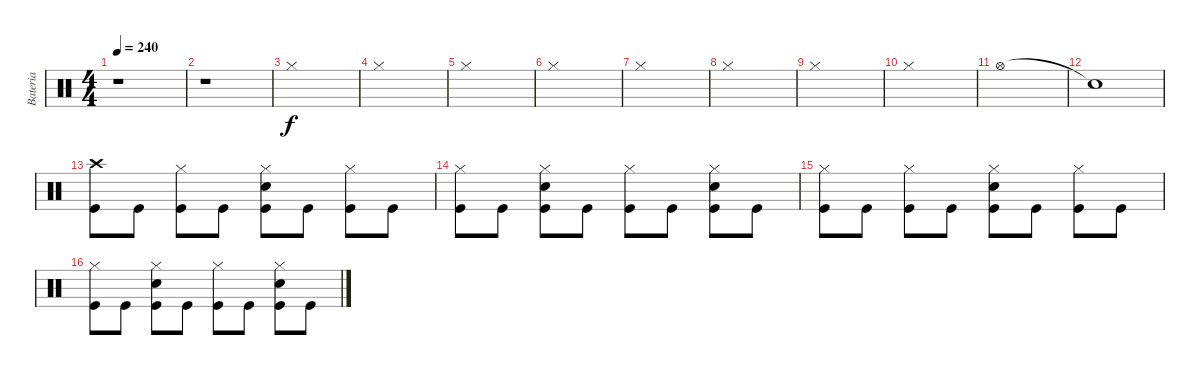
\track ("Bateria" "Bateria") {instrument percussion}
\staff {score}
\articulation defaults
\ts (4 4)
\tempo 240
\clef neutral
\ks c
r.1{dy f} |
r.1 |
"Hi-Hat (closed)".1 |
"Hi-Hat (closed)".1 |
"Hi-Hat (closed)".1 |
"Hi-Hat (closed)".1 |
"Hi-Hat (closed)".1 |
"Hi-Hat (closed)".1 |
"Hi-Hat (closed)".1 |
"Hi-Hat (closed)".1 |
"Hi-Hat (open)".1 |
"Snare (hit)"{t}.1 |
("Kick (hit)" "Crash high (hit)").8 "Kick (hit)".8 ("Kick (hit)" "Hi-Hat (closed)").8 "Kick (hit)".8 ("Kick (hit)" "Electric Snare (hit)" "Hi-Hat (closed)").8 "Kick (hit)".8 ("Kick (hit)" "Hi-Hat (closed)").8 "Kick (hit)".8 |
("Kick (hit)" "Hi-Hat (closed)").8 "Kick (hit)".8 ("Kick (hit)" "Electric Snare (hit)" "Hi-Hat (closed)").8 "Kick (hit)".8 ("Kick (hit)" "Hi-Hat (closed)").8 "Kick (hit)".8 ("Kick (hit)" "Electric Snare (hit)" "Hi-Hat (closed)").8 "Kick (hit)".8 |
("Kick (hit)" "Hi-Hat (closed)").8 "Kick (hit)".8 ("Kick (hit)" "Hi-Hat (closed)").8 "Kick (hit)".8 ("Kick (hit)" "Electric Snare (hit)" "Hi-Hat (closed)").8 "Kick (hit)".8 ("Kick (hit)" "Hi-Hat (closed)").8 "Kick (hit)".8 |
("Kick (hit)" "Hi-Hat (closed)").8 "Kick (hit)".8 ("Kick (hit)" "Electric Snare (hit)" "Hi-Hat (closed)").8 "Kick (hit)".8 ("Kick (hit)" "Hi-Hat (closed)").8 "Kick (hit)".8 ("Kick (hit)" "Electric Snare (hit)" "Hi-Hat (closed)").8 "Kick (hit)".8
